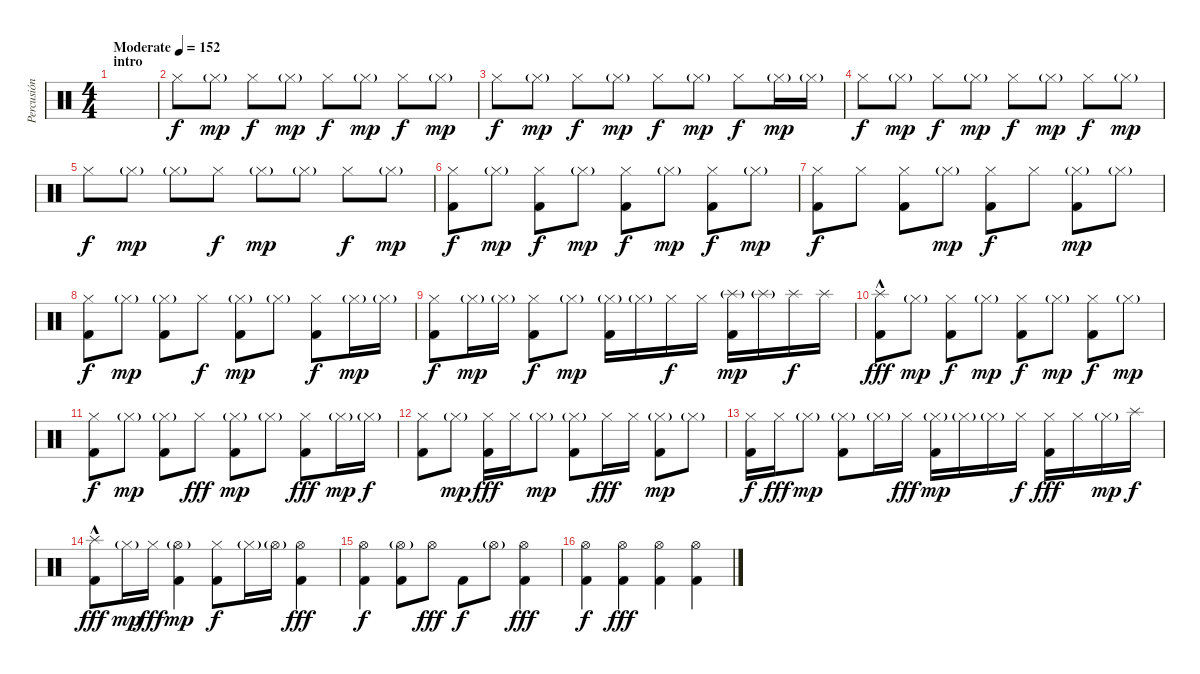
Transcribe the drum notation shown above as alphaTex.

\track ("Percusión" "Percusión") {instrument percussion}
\staff {score}
\articulation defaults
\ts (4 4)
\section ("" "intro")
\tempo (152 "Moderate")
\clef neutral
\ks c
|
"Hi-Hat (closed)".8 "Hi-Hat (closed)"{g}.8{dy mp} "Hi-Hat (closed)".8{dy f} "Hi-Hat (closed)"{g}.8{dy mp} "Hi-Hat (closed)".8{dy f} "Hi-Hat (closed)"{g}.8{dy mp} "Hi-Hat (closed)".8{dy f} "Hi-Hat (closed)"{g}.8{dy mp} |
"Hi-Hat (closed)".8{dy f} "Hi-Hat (closed)"{g}.8{dy mp} "Hi-Hat (closed)".8{dy f} "Hi-Hat (closed)"{g}.8{dy mp} "Hi-Hat (closed)".8{dy f} "Hi-Hat (closed)"{g}.8{dy mp} "Hi-Hat (closed)".8{dy f} "Hi-Hat (closed)"{g}.16{dy mp} "Hi-Hat (closed)"{g}.16 |
"Hi-Hat (closed)".8{dy f} "Hi-Hat (closed)"{g}.8{dy mp} "Hi-Hat (closed)".8{dy f} "Hi-Hat (closed)"{g}.8{dy mp} "Hi-Hat (closed)".8{dy f} "Hi-Hat (closed)"{g}.8{dy mp} "Hi-Hat (closed)".8{dy f} "Hi-Hat (closed)"{g}.8{dy mp} |
"Hi-Hat (closed)".8{dy f} "Hi-Hat (closed)"{g}.8{dy mp} "Hi-Hat (closed)"{g}.8 "Hi-Hat (closed)".8{dy f} "Hi-Hat (closed)"{g}.8{dy mp} "Hi-Hat (closed)"{g}.8 "Hi-Hat (closed)".8{dy f} "Hi-Hat (closed)"{g}.8{dy mp} |
("Hi-Hat (closed)" "Kick (hit) 2").8{dy f} "Hi-Hat (closed)"{g}.8{dy mp} ("Hi-Hat (closed)" "Kick (hit) 2").8{dy f} "Hi-Hat (closed)"{g}.8{dy mp} ("Hi-Hat (closed)" "Kick (hit) 2").8{dy f} "Hi-Hat (closed)"{g}.8{dy mp} ("Hi-Hat (closed)" "Kick (hit) 2").8{dy f} "Hi-Hat (closed)"{g}.8{dy mp} |
("Hi-Hat (closed)" "Kick (hit) 2").8{dy f} "Hi-Hat (closed)".8 ("Hi-Hat (closed)" "Kick (hit) 2").8 "Hi-Hat (closed)"{g}.8{dy mp} ("Hi-Hat (closed)" "Kick (hit) 2").8{dy f} "Hi-Hat (closed)".8 ("Hi-Hat (closed)"{g} "Kick (hit) 2").8{dy mp} "Hi-Hat (closed)"{g}.8 |
("Hi-Hat (closed)" "Kick (hit) 2").8{dy f} "Hi-Hat (closed)"{g}.8{dy mp} ("Hi-Hat (closed)"{g} "Kick (hit) 2").8 "Hi-Hat (closed)".8{dy f} ("Hi-Hat (closed)"{g} "Kick (hit) 2").8{dy mp} "Hi-Hat (closed)"{g}.8 ("Hi-Hat (closed)" "Kick (hit) 2").8{dy f} "Hi-Hat (closed)"{g}.16{dy mp} "Hi-Hat (closed)"{g}.16 |
("Hi-Hat (closed)" "Kick (hit) 2").8{dy f} "Hi-Hat (closed)"{g}.16{dy mp} "Hi-Hat (closed)"{g}.16 ("Hi-Hat (closed)" "Kick (hit) 2").8{dy f} "Hi-Hat (closed)"{g}.8{dy mp} ("Hi-Hat (closed)"{g} "Kick (hit) 2").16 "Hi-Hat (closed)"{g}.16 "Hi-Hat (closed)".16{dy f} "Hi-Hat (closed)".16 ("Splash (hit)"{g} "Kick (hit) 2").16{dy mp} "Splash (hit)"{g}.16 "Splash (hit)".16{dy f} "Splash (hit)".16 |
("Splash (hit)"{hac} "Kick (hit) 2").8{dy fff} "Hi-Hat (closed)"{g}.8{dy mp} ("Hi-Hat (closed)" "Kick (hit) 2").8{dy f} "Hi-Hat (closed)"{g}.8{dy mp} ("Hi-Hat (closed)" "Kick (hit) 2").8{dy f} "Hi-Hat (closed)"{g}.8{dy mp} ("Hi-Hat (closed)" "Kick (hit) 2").8{dy f} "Hi-Hat (closed)"{g}.8{dy mp} |
("Hi-Hat (closed)" "Kick (hit) 2").8{dy f} "Hi-Hat (closed)"{g}.8{dy mp} ("Hi-Hat (closed)"{g} "Kick (hit) 2").8 "Hi-Hat (closed)".8{dy fff} ("Hi-Hat (closed)"{g} "Kick (hit) 2").8{dy mp} "Hi-Hat (closed)"{g}.8 ("Hi-Hat (closed)" "Kick (hit) 2").8{dy fff} "Hi-Hat (closed)"{g}.16{dy mp} "Hi-Hat (closed)"{g}.16{dy f} |
("Hi-Hat (closed)" "Kick (hit) 2").8 "Hi-Hat (closed)"{g}.8{dy mp} ("Hi-Hat (closed)" "Kick (hit) 2").16{dy fff} "Hi-Hat (closed)".16 "Hi-Hat (closed)"{g}.8{dy mp} ("Hi-Hat (closed)"{g} "Kick (hit) 2").8 "Hi-Hat (closed)".16{dy fff} "Hi-Hat (closed)".16 ("Hi-Hat (closed)"{g} "Kick (hit) 2").8{dy mp} "Hi-Hat (closed)"{g}.8 |
("Hi-Hat (closed)" "Kick (hit) 2").16{dy f} "Hi-Hat (closed)".16{dy fff} "Hi-Hat (closed)"{g}.8{dy mp} ("Hi-Hat (closed)"{g} "Kick (hit) 2").8 "Hi-Hat (closed)"{g}.16 "Hi-Hat (closed)".16{dy fff} ("Hi-Hat (closed)"{g} "Kick (hit) 2").16{dy mp} "Hi-Hat (closed)"{g}.16 "Hi-Hat (closed)"{g}.16 "Hi-Hat (closed)".16{dy f} ("Hi-Hat (closed)" "Kick (hit) 2").16{dy fff} "Hi-Hat (closed)".16 "Hi-Hat (closed)"{g}.16{dy mp} "Splash (hit)".16{dy f} |
("Splash (hit)"{hac} "Kick (hit) 2").8{dy fff} "Hi-Hat (closed)"{g}.16{dy mp} "Hi-Hat (closed)".16{dy fff} ("Hi-Hat (open)"{g} "Kick (hit) 2").4{dy mp} ("Hi-Hat (closed)" "Kick (hit) 2").8{dy f} "Hi-Hat (closed)"{g}.16 "Hi-Hat (open)"{g}.16 ("Hi-Hat (open)" "Kick (hit) 2").4{dy fff} |
("Hi-Hat (open)" "Kick (hit) 2").4{dy f} ("Hi-Hat (open)"{g} "Kick (hit) 2").8 "Hi-Hat (open)".8{dy fff} "Kick (hit) 2".8{dy f} "Hi-Hat (open)"{g}.8 ("Hi-Hat (open)" "Kick (hit) 2").4{dy fff} |
("Hi-Hat (open)" "Kick (hit) 2").4{dy f} ("Hi-Hat (open)" "Kick (hit) 2").4{dy fff} ("Hi-Hat (open)" "Kick (hit) 2").4 ("Hi-Hat (open)" "Kick (hit) 2").4
